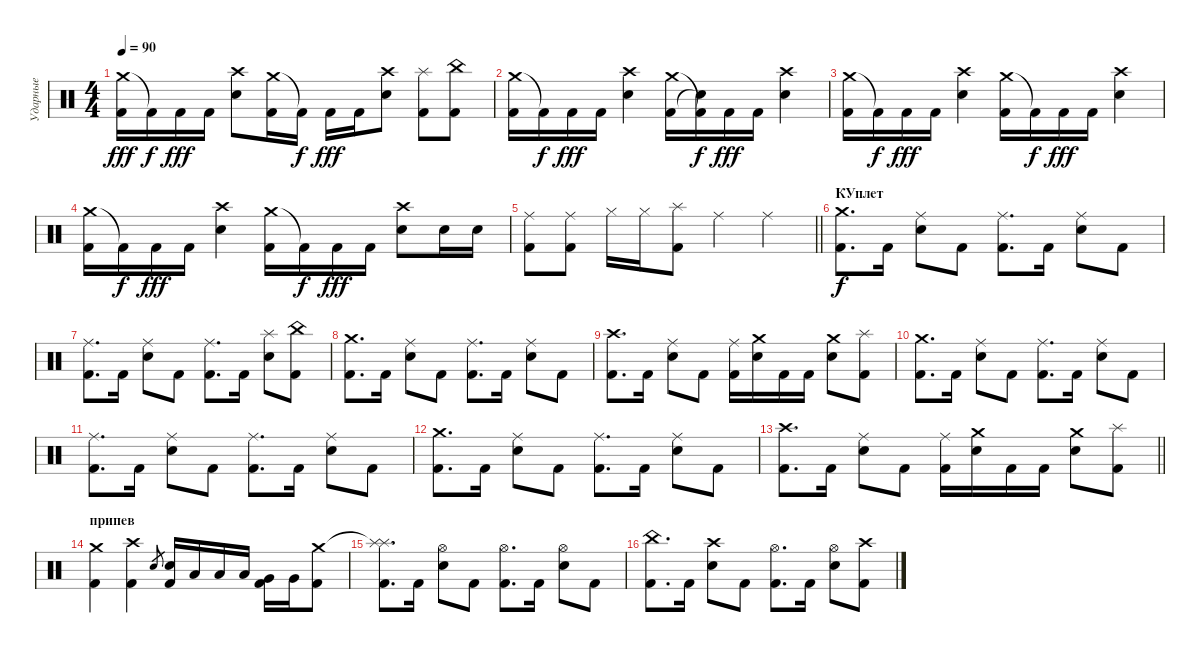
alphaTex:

\track ("Ударные" "Ударные") {instrument percussion}
\staff {score}
\articulation defaults
\ts (4 4)
\tempo 90
\clef neutral
\ks c
("Crash medium (hit)" "Kick (hit) 2").16{dy fff} "Kick (hit) 2"{t}.16{dy f} "Kick (hit) 2".16{dy fff} "Kick (hit) 2".16 ("Crash high (hit)" "Snare (hit) 2").8 ("Crash medium (hit)" "Kick (hit) 2").16 "Kick (hit) 2"{t}.16{dy f} "Kick (hit) 2".16{dy fff} "Kick (hit) 2".16 ("Crash high (hit)" "Snare (hit) 2").8 ("Splash (hit)" "Kick (hit) 2").8 ("China (hit)" "Kick (hit) 2").8 |
("Crash medium (hit)" "Kick (hit) 2").16 "Kick (hit) 2"{t}.16{dy f} "Kick (hit) 2".16{dy fff} "Kick (hit) 2".16 ("Crash high (hit)" "Snare (hit) 2").4 ("Crash medium (hit)" "Kick (hit) 2").16 ("Kick (hit) 2"{t} "Snare (hit)"{t}).16{dy f} "Kick (hit) 2".16{dy fff} "Kick (hit) 2".16 ("Crash high (hit)" "Snare (hit) 2").4 |
("Crash medium (hit)" "Kick (hit) 2").16 "Kick (hit) 2"{t}.16{dy f} "Kick (hit) 2".16{dy fff} "Kick (hit) 2".16 ("Crash high (hit)" "Snare (hit) 2").4 ("Crash medium (hit)" "Kick (hit) 2").16 "Kick (hit) 2"{t}.16{dy f} "Kick (hit) 2".16{dy fff} "Kick (hit) 2".16 ("Crash high (hit)" "Snare (hit) 2").4 |
("Crash medium (hit)" "Kick (hit) 2").16 "Kick (hit) 2"{t}.16{dy f} "Kick (hit) 2".16{dy fff} "Kick (hit) 2".16 ("Crash high (hit)" "Snare (hit) 2").4 ("Crash medium (hit)" "Kick (hit) 2").16 "Kick (hit) 2"{t}.16{dy f} "Kick (hit) 2".16{dy fff} "Kick (hit) 2".16 ("Crash high (hit)" "Snare (hit) 2").8 "Snare (hit) 2".16 "Snare (hit) 2".16 |
\barLineRight lightlight
("Ride (middle)" "Kick (hit) 2").8 ("Ride (middle)" "Kick (hit) 2").8 "Hi-Hat (closed)".16 "Hi-Hat (closed)".16 ("Splash (hit)" "Kick (hit) 2").8 "Ride (middle)".4 "Ride (middle)".4 |
\section ("" "КУплет")
("Crash medium (hit)" "Kick (hit) 2").8{d dy f} "Kick (hit) 2".16 ("Ride (middle)" "Snare (hit) 2").8 "Kick (hit) 2".8 ("Ride (middle)" "Kick (hit) 2").8{d} "Kick (hit) 2".16 ("Ride (middle)" "Snare (hit) 2").8 "Kick (hit) 2".8 |
("Ride (middle)" "Kick (hit) 2").8{d} "Kick (hit) 2".16 ("Ride (middle)" "Snare (hit) 2").8 "Kick (hit) 2".8 ("Ride (middle)" "Kick (hit) 2").8{d} "Kick (hit) 2".16 ("Splash (hit)" "Snare (hit) 2").8 ("China (hit)" "Kick (hit) 2").8 |
("Crash medium (hit)" "Kick (hit) 2").8{d} "Kick (hit) 2".16 ("Ride (middle)" "Snare (hit) 2").8 "Kick (hit) 2".8 ("Ride (middle)" "Kick (hit) 2").8{d} "Kick (hit) 2".16 ("Ride (middle)" "Snare (hit) 2").8 "Kick (hit) 2".8 |
("Crash high (hit)" "Kick (hit) 2").8{d} "Kick (hit) 2".16 ("Ride (middle)" "Snare (hit) 2").8 "Kick (hit) 2".8 ("Ride (middle)" "Kick (hit) 2").16 ("Crash medium (hit)" "Snare (hit) 2").16 "Kick (hit) 2".16 "Kick (hit) 2".16 ("Crash medium (hit)" "Snare (hit) 2").8 ("Splash (hit)" "Kick (hit) 2").8 |
("Crash medium (hit)" "Kick (hit) 2").8{d} "Kick (hit) 2".16 ("Ride (middle)" "Snare (hit) 2").8 "Kick (hit) 2".8 ("Ride (middle)" "Kick (hit) 2").8{d} "Kick (hit) 2".16 ("Ride (middle)" "Snare (hit) 2").8 "Kick (hit) 2".8 |
("Ride (middle)" "Kick (hit) 2").8{d} "Kick (hit) 2".16 ("Ride (middle)" "Snare (hit) 2").8 "Kick (hit) 2".8 ("Ride (middle)" "Kick (hit) 2").8{d} "Kick (hit) 2".16 ("Ride (middle)" "Snare (hit) 2").8 "Kick (hit) 2".8 |
("Crash medium (hit)" "Kick (hit) 2").8{d} "Kick (hit) 2".16 ("Ride (middle)" "Snare (hit) 2").8 "Kick (hit) 2".8 ("Ride (middle)" "Kick (hit) 2").8{d} "Kick (hit) 2".16 ("Ride (middle)" "Snare (hit) 2").8 "Kick (hit) 2".8 |
\barLineRight lightlight
("Crash high (hit)" "Kick (hit) 2").8{d} "Kick (hit) 2".16 ("Ride (middle)" "Snare (hit) 2").8 "Kick (hit) 2".8 ("Ride (middle)" "Kick (hit) 2").16 ("Crash medium (hit)" "Snare (hit) 2").16 "Kick (hit) 2".16 "Kick (hit) 2".16 ("Crash medium (hit)" "Snare (hit) 2").8 ("Splash (hit)" "Kick (hit) 2").8 |
\section ("" "припев")
("Crash medium (hit)" "Kick (hit) 2").4 ("Crash high (hit)" "Kick (hit) 2").4 "Snare (hit) 2".8{gr} ("Snare (hit) 2" "Kick (hit) 2").16 "Low Tom (hit)".16 "Low Tom (hit)".16 "Low Tom (hit)".16 ("Very Low Tom (hit)" "Kick (hit) 2").16 "Very Low Tom (hit)".16 ("Crash medium (hit)" "Kick (hit) 2").8 |
("Splash (hit)"{t} "Splash (hit)" "Kick (hit) 2").8{d} "Kick (hit) 2".16 ("Hi-Hat (open)" "Snare (hit) 2").8 "Kick (hit) 2".8 ("Hi-Hat (open)" "Kick (hit) 2").8{d} "Kick (hit) 2".16 ("Hi-Hat (open)" "Snare (hit) 2").8 "Kick (hit) 2".8 |
("China (hit)" "Kick (hit) 2").8{d} "Kick (hit) 2".16 ("Crash high (hit)" "Snare (hit) 2").8 "Kick (hit) 2".8 ("Hi-Hat (open)" "Kick (hit) 2").8{d} "Kick (hit) 2".16 ("Hi-Hat (open)" "Snare (hit) 2").8 ("Crash high (hit)" "Kick (hit) 2").8
